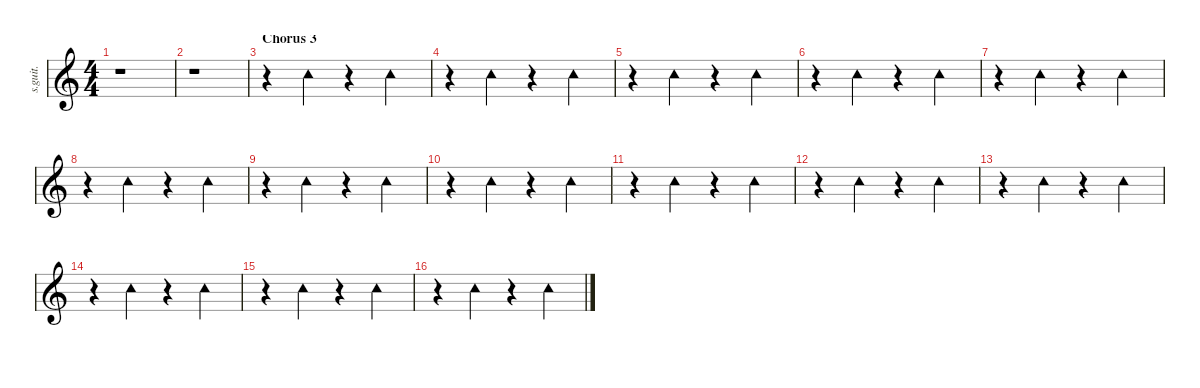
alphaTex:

\defaultSystemsLayout 4
\hideDynamics
\bracketExtendMode nobrackets
\track ("Studio" "s.guit.") {instrument percussion}
\staff {score}
\articulation defaults
\ts (4 4)
\tempo (149 hide)
\clef g2
\ks c
r.1{dy mp} |
r.1 |
\section ("" "Chorus 3")
r.4 "Tambourine (hit)".4{lyrics (0 "") lyrics (1 "") lyrics (2 "") lyrics (3 "") lyrics (4 "")} r.4 "Tambourine (hit)".4{lyrics (0 "") lyrics (1 "") lyrics (2 "") lyrics (3 "") lyrics (4 "")} |
r.4 "Tambourine (hit)".4{lyrics (0 "") lyrics (1 "") lyrics (2 "") lyrics (3 "") lyrics (4 "")} r.4 "Tambourine (hit)".4{lyrics (0 "") lyrics (1 "") lyrics (2 "") lyrics (3 "") lyrics (4 "")} |
r.4 "Tambourine (hit)".4{lyrics (0 "") lyrics (1 "") lyrics (2 "") lyrics (3 "") lyrics (4 "")} r.4 "Tambourine (hit)".4{lyrics (0 "") lyrics (1 "") lyrics (2 "") lyrics (3 "") lyrics (4 "")} |
r.4 "Tambourine (hit)".4{lyrics (0 "") lyrics (1 "") lyrics (2 "") lyrics (3 "") lyrics (4 "")} r.4 "Tambourine (hit)".4{lyrics (0 "") lyrics (1 "") lyrics (2 "") lyrics (3 "") lyrics (4 "")} |
r.4 "Tambourine (hit)".4{lyrics (0 "") lyrics (1 "") lyrics (2 "") lyrics (3 "") lyrics (4 "")} r.4 "Tambourine (hit)".4{lyrics (0 "") lyrics (1 "") lyrics (2 "") lyrics (3 "") lyrics (4 "")} |
r.4 "Tambourine (hit)".4{lyrics (0 "") lyrics (1 "") lyrics (2 "") lyrics (3 "") lyrics (4 "")} r.4 "Tambourine (hit)".4{lyrics (0 "") lyrics (1 "") lyrics (2 "") lyrics (3 "") lyrics (4 "")} |
r.4 "Tambourine (hit)".4{lyrics (0 "") lyrics (1 "") lyrics (2 "") lyrics (3 "") lyrics (4 "")} r.4 "Tambourine (hit)".4{lyrics (0 "") lyrics (1 "") lyrics (2 "") lyrics (3 "") lyrics (4 "")} |
r.4 "Tambourine (hit)".4{lyrics (0 "") lyrics (1 "") lyrics (2 "") lyrics (3 "") lyrics (4 "")} r.4 "Tambourine (hit)".4{lyrics (0 "") lyrics (1 "") lyrics (2 "") lyrics (3 "") lyrics (4 "")} |
r.4 "Tambourine (hit)".4{lyrics (0 "") lyrics (1 "") lyrics (2 "") lyrics (3 "") lyrics (4 "")} r.4 "Tambourine (hit)".4{lyrics (0 "") lyrics (1 "") lyrics (2 "") lyrics (3 "") lyrics (4 "")} |
r.4 "Tambourine (hit)".4{lyrics (0 "") lyrics (1 "") lyrics (2 "") lyrics (3 "") lyrics (4 "")} r.4 "Tambourine (hit)".4{lyrics (0 "") lyrics (1 "") lyrics (2 "") lyrics (3 "") lyrics (4 "")} |
r.4 "Tambourine (hit)".4{lyrics (0 "") lyrics (1 "") lyrics (2 "") lyrics (3 "") lyrics (4 "")} r.4 "Tambourine (hit)".4{lyrics (0 "") lyrics (1 "") lyrics (2 "") lyrics (3 "") lyrics (4 "")} |
r.4 "Tambourine (hit)".4{lyrics (0 "") lyrics (1 "") lyrics (2 "") lyrics (3 "") lyrics (4 "")} r.4 "Tambourine (hit)".4{lyrics (0 "") lyrics (1 "") lyrics (2 "") lyrics (3 "") lyrics (4 "")} |
r.4 "Tambourine (hit)".4{lyrics (0 "") lyrics (1 "") lyrics (2 "") lyrics (3 "") lyrics (4 "")} r.4 "Tambourine (hit)".4{lyrics (0 "") lyrics (1 "") lyrics (2 "") lyrics (3 "") lyrics (4 "")} |
r.4 "Tambourine (hit)".4{lyrics (0 "") lyrics (1 "") lyrics (2 "") lyrics (3 "") lyrics (4 "")} r.4 "Tambourine (hit)".4{lyrics (0 "") lyrics (1 "") lyrics (2 "") lyrics (3 "") lyrics (4 "")}
